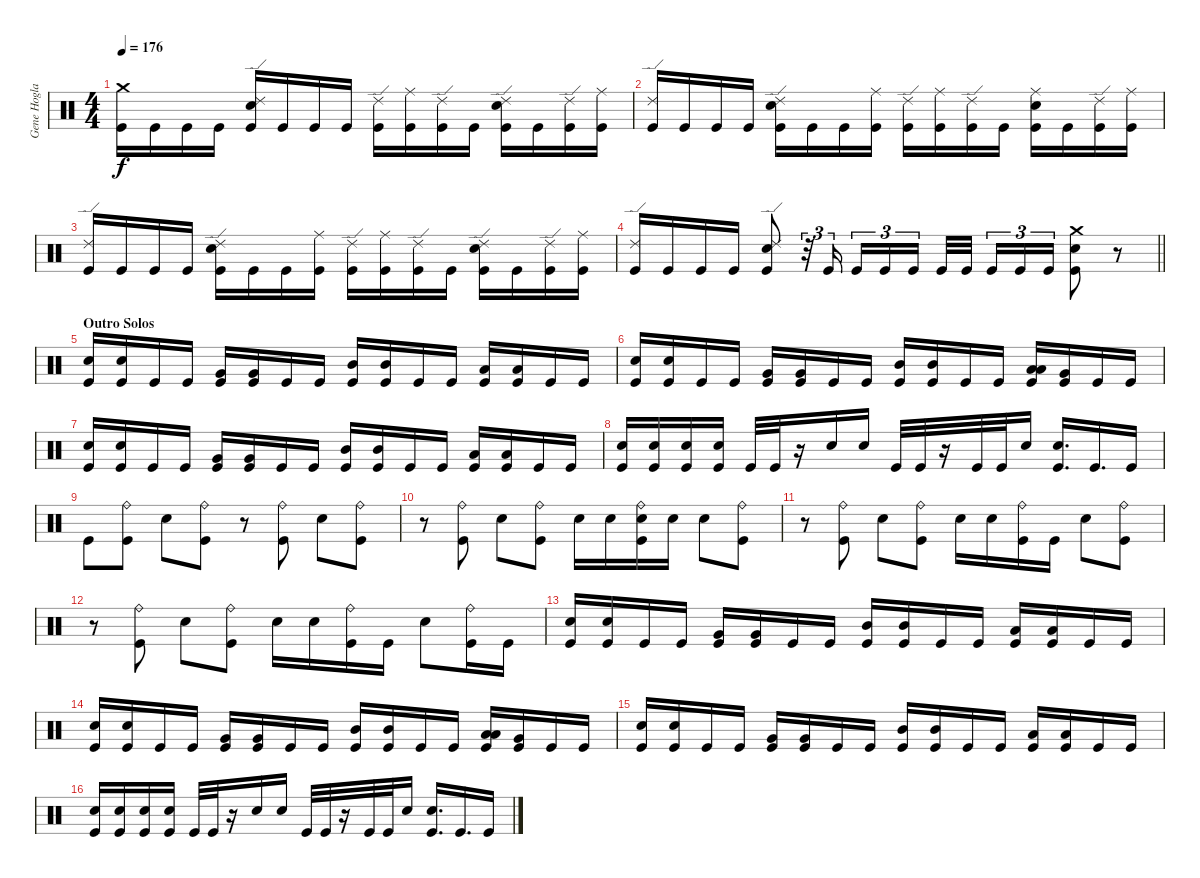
\track ("Gene Hoglan " "Gene Hogla") {instrument percussion}
\staff {score}
\articulation defaults
\ts (4 4)
\tempo 176
\clef neutral
\ks c
("Crash medium (hit)" "Kick (hit)").16{dy f} "Kick (hit)".16 "Kick (hit)".16 "Kick (hit)".16 ("Ride (edge) 2" "Snare (hit) 2" "Kick (hit)").16 "Kick (hit)".16 "Kick (hit)".16 "Kick (hit)".16 ("Ride (edge) 2" "Kick (hit)").16 ("Ride (middle)" "Kick (hit)").16 ("Ride (edge) 2" "Kick (hit)").16 "Kick (hit)".16 ("Ride (edge) 2" "Snare (hit) 2" "Kick (hit)").16 "Kick (hit)".16 ("Ride (edge) 2" "Kick (hit)").16 ("Ride (middle)" "Kick (hit)").16 |
("Ride (edge) 2" "Kick (hit)").16 "Kick (hit)".16 "Kick (hit)".16 "Kick (hit)".16 ("Ride (edge) 2" "Snare (hit) 2" "Kick (hit)").16 "Kick (hit)".16 "Kick (hit)".16 ("Ride (middle)" "Kick (hit)").16 ("Ride (edge) 2" "Kick (hit)").16 ("Ride (middle)" "Kick (hit)").16 ("Ride (edge) 2" "Kick (hit)").16 "Kick (hit)".16 ("Ride (middle)" "Snare (hit) 2" "Kick (hit)").16 "Kick (hit)".16 ("Ride (edge) 2" "Kick (hit)").16 ("Ride (middle)" "Kick (hit)").16 |
("Ride (edge) 2" "Kick (hit)").16 "Kick (hit)".16 "Kick (hit)".16 "Kick (hit)".16 ("Ride (edge) 2" "Snare (hit) 2" "Kick (hit)").16 "Kick (hit)".16 "Kick (hit)".16 ("Ride (middle)" "Kick (hit)").16 ("Ride (edge) 2" "Kick (hit)").16 ("Ride (middle)" "Kick (hit)").16 ("Ride (edge) 2" "Kick (hit)").16 "Kick (hit)".16 ("Ride (edge) 2" "Snare (hit) 2" "Kick (hit)").16 "Kick (hit)".16 ("Ride (edge) 2" "Kick (hit)").16 ("Ride (middle)" "Kick (hit)").16 |
\barLineRight lightlight
("Ride (edge) 2" "Kick (hit)").16 "Kick (hit)".16 "Kick (hit)".16 "Kick (hit)".16 ("Ride (edge) 2" "Snare (hit) 2" "Kick (hit)").8 r.32{tu (3 2)} "Kick (hit)".16{tu (3 2)} "Kick (hit)".16{tu (3 2)} "Kick (hit)".16{tu (3 2)} "Kick (hit)".16{tu (3 2)} "Kick (hit)".32 "Kick (hit)".32 "Kick (hit)".16{tu (3 2)} "Kick (hit)".16{tu (3 2)} "Kick (hit)".16{tu (3 2)} ("Crash medium (hit)" "Snare (hit) 2" "Kick (hit)").8 r.8 |
\section ("" "Outro Solos")
("Snare (hit) 2" "Kick (hit)").16 ("Snare (hit) 2" "Kick (hit)").16 "Kick (hit)".16 "Kick (hit)".16 ("Very Low Tom (hit)" "Kick (hit)").16 ("Very Low Tom (hit)" "Kick (hit)").16 "Kick (hit)".16 "Kick (hit)".16 ("Mid Tom (hit)" "Kick (hit)").16 ("Mid Tom (hit)" "Kick (hit)").16 "Kick (hit)".16 "Kick (hit)".16 ("Low Tom (hit)" "Kick (hit)").16 ("Low Tom (hit)" "Kick (hit)").16 "Kick (hit)".16 "Kick (hit)".16 |
("Snare (hit) 2" "Kick (hit)").16 ("Snare (hit) 2" "Kick (hit)").16 "Kick (hit)".16 "Kick (hit)".16 ("Very Low Tom (hit)" "Kick (hit)").16 ("Very Low Tom (hit)" "Kick (hit)").16 "Kick (hit)".16 "Kick (hit)".16 ("Mid Tom (hit)" "Kick (hit)").16 ("Mid Tom (hit)" "Kick (hit)").16 "Kick (hit)".16 "Kick (hit)".16 ("Low Tom (hit)" "Low Tom (hit)" "Kick (hit)").16 ("Very Low Tom (hit)" "Kick (hit)").16 "Kick (hit)".16 "Kick (hit)".16 |
("Snare (hit) 2" "Kick (hit)").16 ("Snare (hit) 2" "Kick (hit)").16 "Kick (hit)".16 "Kick (hit)".16 ("Very Low Tom (hit)" "Kick (hit)").16 ("Very Low Tom (hit)" "Kick (hit)").16 "Kick (hit)".16 "Kick (hit)".16 ("Mid Tom (hit)" "Kick (hit)").16 ("Mid Tom (hit)" "Kick (hit)").16 "Kick (hit)".16 "Kick (hit)".16 ("Low Tom (hit)" "Kick (hit)").16 ("Low Tom (hit)" "Kick (hit)").16 "Kick (hit)".16 "Kick (hit)".16 |
("Snare (hit) 2" "Kick (hit)").16 ("Snare (hit) 2" "Kick (hit)").16 ("Snare (hit) 2" "Kick (hit)").16 ("Snare (hit) 2" "Kick (hit)").16 "Kick (hit)".32 "Kick (hit)".32 r.16 "Snare (hit) 2".16 "Snare (hit) 2".16 "Kick (hit)".32 "Kick (hit)".32 r.16 "Kick (hit)".32 "Kick (hit)".32 "Snare (hit) 2".16 ("Snare (hit) 2" "Kick (hit)").16{d} "Kick (hit)".16{d} "Kick (hit)".16 |
"Kick (hit)".8 ("Ride (bell)" "Kick (hit)").8 "Snare (hit) 2".8 ("Ride (bell)" "Kick (hit)").8 r.8 ("Ride (bell)" "Kick (hit)").8 "Snare (hit) 2".8 ("Ride (bell)" "Kick (hit)").8 |
r.8 ("Ride (bell)" "Kick (hit)").8 "Snare (hit) 2".8 ("Ride (bell)" "Kick (hit)").8 "Snare (hit) 2".16 "Snare (hit) 2".16 ("Ride (bell)" "Snare (hit) 2" "Kick (hit)").16 "Snare (hit) 2".16 "Snare (hit) 2".8 ("Ride (bell)" "Kick (hit)").8 |
r.8 ("Ride (bell)" "Kick (hit)").8 "Snare (hit) 2".8 ("Ride (bell)" "Kick (hit)").8 "Snare (hit) 2".16 "Snare (hit) 2".16 ("Ride (bell)" "Kick (hit)").16 "Kick (hit)".16 "Snare (hit) 2".8 ("Ride (bell)" "Kick (hit)").8 |
r.8 ("Ride (bell)" "Kick (hit)").8 "Snare (hit) 2".8 ("Ride (bell)" "Kick (hit)").8 "Snare (hit) 2".16 "Snare (hit) 2".16 ("Ride (bell)" "Kick (hit)").16 "Kick (hit)".16 "Snare (hit) 2".8 ("Ride (bell)" "Kick (hit)").16 "Kick (hit)".16 |
("Snare (hit) 2" "Kick (hit)").16 ("Snare (hit) 2" "Kick (hit)").16 "Kick (hit)".16 "Kick (hit)".16 ("Very Low Tom (hit)" "Kick (hit)").16 ("Very Low Tom (hit)" "Kick (hit)").16 "Kick (hit)".16 "Kick (hit)".16 ("Mid Tom (hit)" "Kick (hit)").16 ("Mid Tom (hit)" "Kick (hit)").16 "Kick (hit)".16 "Kick (hit)".16 ("Low Tom (hit)" "Kick (hit)").16 ("Low Tom (hit)" "Kick (hit)").16 "Kick (hit)".16 "Kick (hit)".16 |
("Snare (hit) 2" "Kick (hit)").16 ("Snare (hit) 2" "Kick (hit)").16 "Kick (hit)".16 "Kick (hit)".16 ("Very Low Tom (hit)" "Kick (hit)").16 ("Very Low Tom (hit)" "Kick (hit)").16 "Kick (hit)".16 "Kick (hit)".16 ("Mid Tom (hit)" "Kick (hit)").16 ("Mid Tom (hit)" "Kick (hit)").16 "Kick (hit)".16 "Kick (hit)".16 ("Low Tom (hit)" "Low Tom (hit)" "Kick (hit)").16 ("Very Low Tom (hit)" "Kick (hit)").16 "Kick (hit)".16 "Kick (hit)".16 |
("Snare (hit) 2" "Kick (hit)").16 ("Snare (hit) 2" "Kick (hit)").16 "Kick (hit)".16 "Kick (hit)".16 ("Very Low Tom (hit)" "Kick (hit)").16 ("Very Low Tom (hit)" "Kick (hit)").16 "Kick (hit)".16 "Kick (hit)".16 ("Mid Tom (hit)" "Kick (hit)").16 ("Mid Tom (hit)" "Kick (hit)").16 "Kick (hit)".16 "Kick (hit)".16 ("Low Tom (hit)" "Kick (hit)").16 ("Low Tom (hit)" "Kick (hit)").16 "Kick (hit)".16 "Kick (hit)".16 |
("Snare (hit) 2" "Kick (hit)").16 ("Snare (hit) 2" "Kick (hit)").16 ("Snare (hit) 2" "Kick (hit)").16 ("Snare (hit) 2" "Kick (hit)").16 "Kick (hit)".32 "Kick (hit)".32 r.16 "Snare (hit) 2".16 "Snare (hit) 2".16 "Kick (hit)".32 "Kick (hit)".32 r.16 "Kick (hit)".32 "Kick (hit)".32 "Snare (hit) 2".16 ("Snare (hit) 2" "Kick (hit)").16{d} "Kick (hit)".16{d} "Kick (hit)".16
